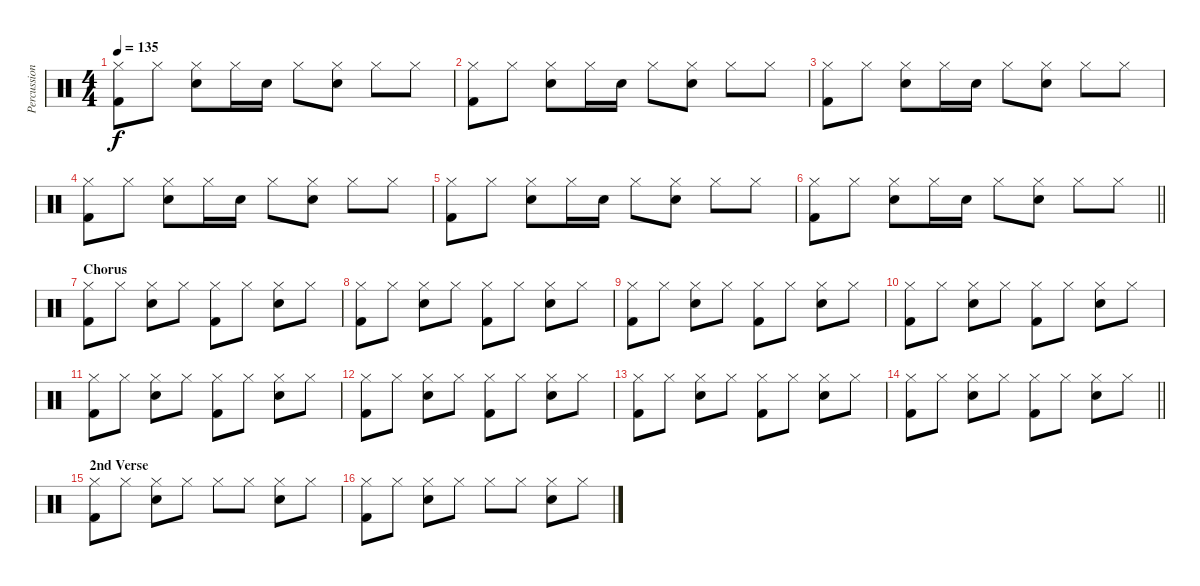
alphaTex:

\track ("Percussion" "Percussion") {instrument percussion}
\staff {score}
\articulation defaults
\ts (4 4)
\tempo 135
\clef neutral
\ks c
("Hi-Hat (closed)" "Kick (hit) 2").8{dy f} "Hi-Hat (closed)".8 ("Hi-Hat (closed)" "Snare (hit) 2").8 "Hi-Hat (closed)".16 "Snare (hit) 2".16 "Hi-Hat (closed)".8 ("Hi-Hat (closed)" "Snare (hit) 2").8 "Hi-Hat (closed)".8 "Hi-Hat (closed)".8 |
("Hi-Hat (closed)" "Kick (hit) 2").8 "Hi-Hat (closed)".8 ("Hi-Hat (closed)" "Snare (hit) 2").8 "Hi-Hat (closed)".16 "Snare (hit) 2".16 "Hi-Hat (closed)".8 ("Hi-Hat (closed)" "Snare (hit) 2").8 "Hi-Hat (closed)".8 "Hi-Hat (closed)".8 |
("Hi-Hat (closed)" "Kick (hit) 2").8 "Hi-Hat (closed)".8 ("Hi-Hat (closed)" "Snare (hit) 2").8 "Hi-Hat (closed)".16 "Snare (hit) 2".16 "Hi-Hat (closed)".8 ("Hi-Hat (closed)" "Snare (hit) 2").8 "Hi-Hat (closed)".8 "Hi-Hat (closed)".8 |
("Hi-Hat (closed)" "Kick (hit) 2").8 "Hi-Hat (closed)".8 ("Hi-Hat (closed)" "Snare (hit) 2").8 "Hi-Hat (closed)".16 "Snare (hit) 2".16 "Hi-Hat (closed)".8 ("Hi-Hat (closed)" "Snare (hit) 2").8 "Hi-Hat (closed)".8 "Hi-Hat (closed)".8 |
("Hi-Hat (closed)" "Kick (hit) 2").8 "Hi-Hat (closed)".8 ("Hi-Hat (closed)" "Snare (hit) 2").8 "Hi-Hat (closed)".16 "Snare (hit) 2".16 "Hi-Hat (closed)".8 ("Hi-Hat (closed)" "Snare (hit) 2").8 "Hi-Hat (closed)".8 "Hi-Hat (closed)".8 |
\barLineRight lightlight
("Hi-Hat (closed)" "Kick (hit) 2").8 "Hi-Hat (closed)".8 ("Hi-Hat (closed)" "Snare (hit) 2").8 "Hi-Hat (closed)".16 "Snare (hit) 2".16 "Hi-Hat (closed)".8 ("Hi-Hat (closed)" "Snare (hit) 2").8 "Hi-Hat (closed)".8 "Hi-Hat (closed)".8 |
\section ("" "Chorus")
("Hi-Hat (closed)" "Kick (hit) 2").8 "Hi-Hat (closed)".8 ("Hi-Hat (closed)" "Snare (hit) 2").8 "Hi-Hat (closed)".8 ("Hi-Hat (closed)" "Kick (hit) 2").8 "Hi-Hat (closed)".8 ("Hi-Hat (closed)" "Snare (hit) 2").8 "Hi-Hat (closed)".8 |
("Hi-Hat (closed)" "Kick (hit) 2").8 "Hi-Hat (closed)".8 ("Hi-Hat (closed)" "Snare (hit) 2").8 "Hi-Hat (closed)".8 ("Hi-Hat (closed)" "Kick (hit) 2").8 "Hi-Hat (closed)".8 ("Hi-Hat (closed)" "Snare (hit) 2").8 "Hi-Hat (closed)".8 |
("Hi-Hat (closed)" "Kick (hit) 2").8 "Hi-Hat (closed)".8 ("Hi-Hat (closed)" "Snare (hit) 2").8 "Hi-Hat (closed)".8 ("Hi-Hat (closed)" "Kick (hit) 2").8 "Hi-Hat (closed)".8 ("Hi-Hat (closed)" "Snare (hit) 2").8 "Hi-Hat (closed)".8 |
("Hi-Hat (closed)" "Kick (hit) 2").8 "Hi-Hat (closed)".8 ("Hi-Hat (closed)" "Snare (hit) 2").8 "Hi-Hat (closed)".8 ("Hi-Hat (closed)" "Kick (hit) 2").8 "Hi-Hat (closed)".8 ("Hi-Hat (closed)" "Snare (hit) 2").8 "Hi-Hat (closed)".8 |
("Hi-Hat (closed)" "Kick (hit) 2").8 "Hi-Hat (closed)".8 ("Hi-Hat (closed)" "Snare (hit) 2").8 "Hi-Hat (closed)".8 ("Hi-Hat (closed)" "Kick (hit) 2").8 "Hi-Hat (closed)".8 ("Hi-Hat (closed)" "Snare (hit) 2").8 "Hi-Hat (closed)".8 |
("Hi-Hat (closed)" "Kick (hit) 2").8 "Hi-Hat (closed)".8 ("Hi-Hat (closed)" "Snare (hit) 2").8 "Hi-Hat (closed)".8 ("Hi-Hat (closed)" "Kick (hit) 2").8 "Hi-Hat (closed)".8 ("Hi-Hat (closed)" "Snare (hit) 2").8 "Hi-Hat (closed)".8 |
("Hi-Hat (closed)" "Kick (hit) 2").8 "Hi-Hat (closed)".8 ("Hi-Hat (closed)" "Snare (hit) 2").8 "Hi-Hat (closed)".8 ("Hi-Hat (closed)" "Kick (hit) 2").8 "Hi-Hat (closed)".8 ("Hi-Hat (closed)" "Snare (hit) 2").8 "Hi-Hat (closed)".8 |
\barLineRight lightlight
("Hi-Hat (closed)" "Kick (hit) 2").8 "Hi-Hat (closed)".8 ("Hi-Hat (closed)" "Snare (hit) 2").8 "Hi-Hat (closed)".8 ("Hi-Hat (closed)" "Kick (hit) 2").8 "Hi-Hat (closed)".8 ("Hi-Hat (closed)" "Snare (hit) 2").8 "Hi-Hat (closed)".8 |
\section ("" "2nd Verse")
("Hi-Hat (closed)" "Kick (hit) 2").8 "Hi-Hat (closed)".8 ("Hi-Hat (closed)" "Snare (hit) 2").8 "Hi-Hat (closed)".8 "Hi-Hat (closed)".8 "Hi-Hat (closed)".8 ("Hi-Hat (closed)" "Snare (hit) 2").8 "Hi-Hat (closed)".8 |
("Hi-Hat (closed)" "Kick (hit) 2").8 "Hi-Hat (closed)".8 ("Hi-Hat (closed)" "Snare (hit) 2").8 "Hi-Hat (closed)".8 "Hi-Hat (closed)".8 "Hi-Hat (closed)".8 ("Hi-Hat (closed)" "Snare (hit) 2").8 "Hi-Hat (closed)".8
